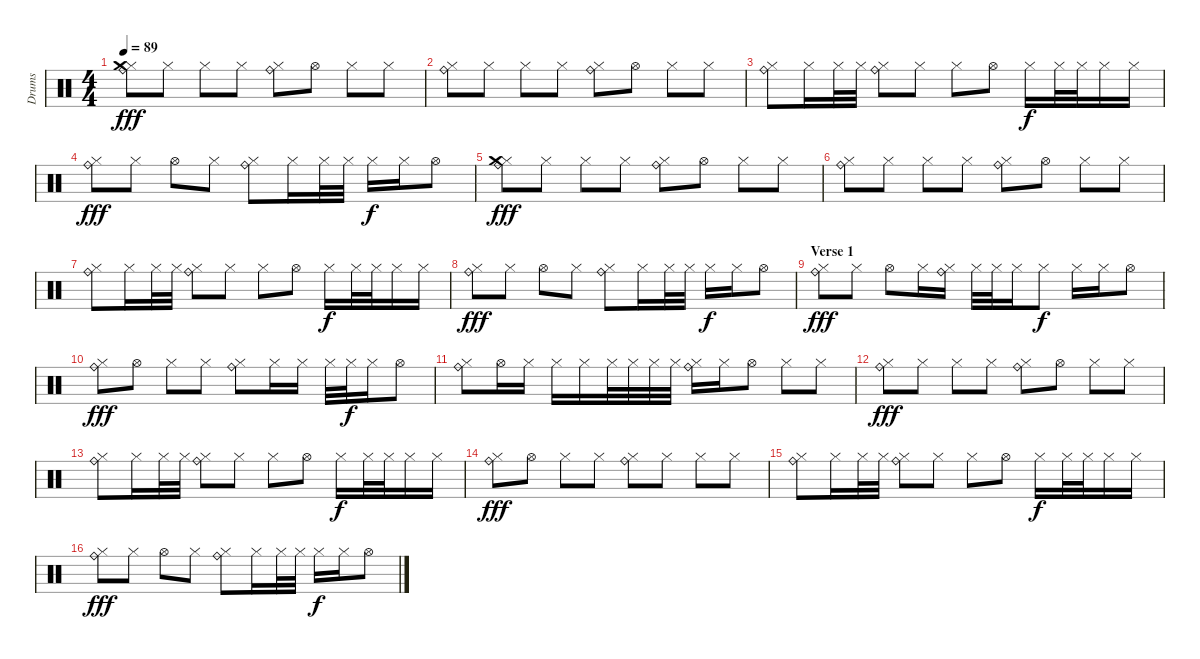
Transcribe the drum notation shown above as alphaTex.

\track ("Drums" "Drums") {instrument percussion}
\staff {score}
\articulation defaults
\ts (4 4)
\tempo 89
\clef neutral
\ks c
("Hi-Hat (closed)" "Ride (bell)" "Crash medium (hit)").8{dy fff} "Hi-Hat (closed)".8 "Hi-Hat (closed)".8 "Hi-Hat (closed)".8 ("Hi-Hat (closed)" "Ride (bell)").8 "Hi-Hat (open)".8 "Hi-Hat (closed)".8 "Hi-Hat (closed)".8 |
("Hi-Hat (closed)" "Ride (bell)").8 "Hi-Hat (closed)".8 "Hi-Hat (closed)".8 "Hi-Hat (closed)".8 ("Hi-Hat (closed)" "Ride (bell)").8 "Hi-Hat (open)".8 "Hi-Hat (closed)".8 "Hi-Hat (closed)".8 |
("Hi-Hat (closed)" "Ride (bell)").8 "Hi-Hat (closed)".16 "Hi-Hat (closed)".32 "Hi-Hat (closed)".32 ("Hi-Hat (closed)" "Ride (bell)").8 "Hi-Hat (closed)".8 "Hi-Hat (closed)".8 "Hi-Hat (open)".8 "Hi-Hat (closed)".16{dy f} "Hi-Hat (closed)".32 "Hi-Hat (closed)".32 "Hi-Hat (closed)".16 "Hi-Hat (closed)".16 |
("Hi-Hat (closed)" "Ride (bell)").8{dy fff} "Hi-Hat (closed)".8 "Hi-Hat (open)".8 "Hi-Hat (closed)".8 ("Hi-Hat (closed)" "Ride (bell)").8 "Hi-Hat (closed)".16 "Hi-Hat (closed)".32 "Hi-Hat (closed)".32 "Hi-Hat (closed)".16{dy f} "Hi-Hat (closed)".16 "Hi-Hat (open)".8 |
("Hi-Hat (closed)" "Ride (bell)" "Crash medium (hit)").8{dy fff} "Hi-Hat (closed)".8 "Hi-Hat (closed)".8 "Hi-Hat (closed)".8 ("Hi-Hat (closed)" "Ride (bell)").8 "Hi-Hat (open)".8 "Hi-Hat (closed)".8 "Hi-Hat (closed)".8 |
("Hi-Hat (closed)" "Ride (bell)").8 "Hi-Hat (closed)".8 "Hi-Hat (closed)".8 "Hi-Hat (closed)".8 ("Hi-Hat (closed)" "Ride (bell)").8 "Hi-Hat (open)".8 "Hi-Hat (closed)".8 "Hi-Hat (closed)".8 |
("Hi-Hat (closed)" "Ride (bell)").8 "Hi-Hat (closed)".16 "Hi-Hat (closed)".32 "Hi-Hat (closed)".32 ("Hi-Hat (closed)" "Ride (bell)").8 "Hi-Hat (closed)".8 "Hi-Hat (closed)".8 "Hi-Hat (open)".8 "Hi-Hat (closed)".16{dy f} "Hi-Hat (closed)".32 "Hi-Hat (closed)".32 "Hi-Hat (closed)".16 "Hi-Hat (closed)".16 |
("Hi-Hat (closed)" "Ride (bell)").8{dy fff} "Hi-Hat (closed)".8 "Hi-Hat (open)".8 "Hi-Hat (closed)".8 ("Hi-Hat (closed)" "Ride (bell)").8 "Hi-Hat (closed)".16 "Hi-Hat (closed)".32 "Hi-Hat (closed)".32 "Hi-Hat (closed)".16{dy f} "Hi-Hat (closed)".16 "Hi-Hat (open)".8 |
\section ("" "Verse 1")
("Hi-Hat (closed)" "Ride (bell)").8{dy fff} "Hi-Hat (closed)".8 "Hi-Hat (open)".8 "Hi-Hat (closed)".16 ("Hi-Hat (closed)" "Ride (bell)").16 "Hi-Hat (closed)".32 "Hi-Hat (closed)".32 "Hi-Hat (closed)".16 "Hi-Hat (closed)".8{dy f} "Hi-Hat (closed)".16 "Hi-Hat (closed)".16 "Hi-Hat (open)".8 |
("Hi-Hat (closed)" "Ride (bell)").8{dy fff} "Hi-Hat (open)".8 "Hi-Hat (closed)".8 "Hi-Hat (closed)".8 ("Hi-Hat (closed)" "Ride (bell)").8 "Hi-Hat (closed)".16 "Hi-Hat (closed)".16 "Hi-Hat (closed)".32 "Hi-Hat (closed)".32{dy f} "Hi-Hat (closed)".16 "Hi-Hat (open)".8 |
("Hi-Hat (closed)" "Ride (bell)").8 "Hi-Hat (open)".16 "Hi-Hat (closed)".16 "Hi-Hat (closed)".16 "Hi-Hat (closed)".16 "Hi-Hat (closed)".32 "Hi-Hat (closed)".32 "Hi-Hat (closed)".32 "Hi-Hat (closed)".32 ("Hi-Hat (closed)" "Ride (bell)").16 "Hi-Hat (closed)".16 "Hi-Hat (open)".8 "Hi-Hat (closed)".8 "Hi-Hat (closed)".8 |
("Hi-Hat (closed)" "Ride (bell)").8{dy fff} "Hi-Hat (closed)".8 "Hi-Hat (closed)".8 "Hi-Hat (closed)".8 ("Hi-Hat (closed)" "Ride (bell)").8 "Hi-Hat (open)".8 "Hi-Hat (closed)".8 "Hi-Hat (closed)".8 |
("Hi-Hat (closed)" "Ride (bell)").8 "Hi-Hat (closed)".16 "Hi-Hat (closed)".32 "Hi-Hat (closed)".32 ("Hi-Hat (closed)" "Ride (bell)").8 "Hi-Hat (closed)".8 "Hi-Hat (closed)".8 "Hi-Hat (open)".8 "Hi-Hat (closed)".16{dy f} "Hi-Hat (closed)".32 "Hi-Hat (closed)".32 "Hi-Hat (closed)".16 "Hi-Hat (closed)".16 |
("Hi-Hat (closed)" "Ride (bell)").8{dy fff} "Hi-Hat (open)".8 "Hi-Hat (closed)".8 "Hi-Hat (closed)".8 ("Hi-Hat (closed)" "Ride (bell)").8 "Hi-Hat (closed)".8 "Hi-Hat (closed)".8 "Hi-Hat (closed)".8 |
("Hi-Hat (closed)" "Ride (bell)").8 "Hi-Hat (closed)".16 "Hi-Hat (closed)".32 "Hi-Hat (closed)".32 ("Hi-Hat (closed)" "Ride (bell)").8 "Hi-Hat (closed)".8 "Hi-Hat (closed)".8 "Hi-Hat (open)".8 "Hi-Hat (closed)".16{dy f} "Hi-Hat (closed)".32 "Hi-Hat (closed)".32 "Hi-Hat (closed)".16 "Hi-Hat (closed)".16 |
("Hi-Hat (closed)" "Ride (bell)").8{dy fff} "Hi-Hat (closed)".8 "Hi-Hat (open)".8 "Hi-Hat (closed)".8 ("Hi-Hat (closed)" "Ride (bell)").8 "Hi-Hat (closed)".16 "Hi-Hat (closed)".32 "Hi-Hat (closed)".32 "Hi-Hat (closed)".16{dy f} "Hi-Hat (closed)".16 "Hi-Hat (open)".8
